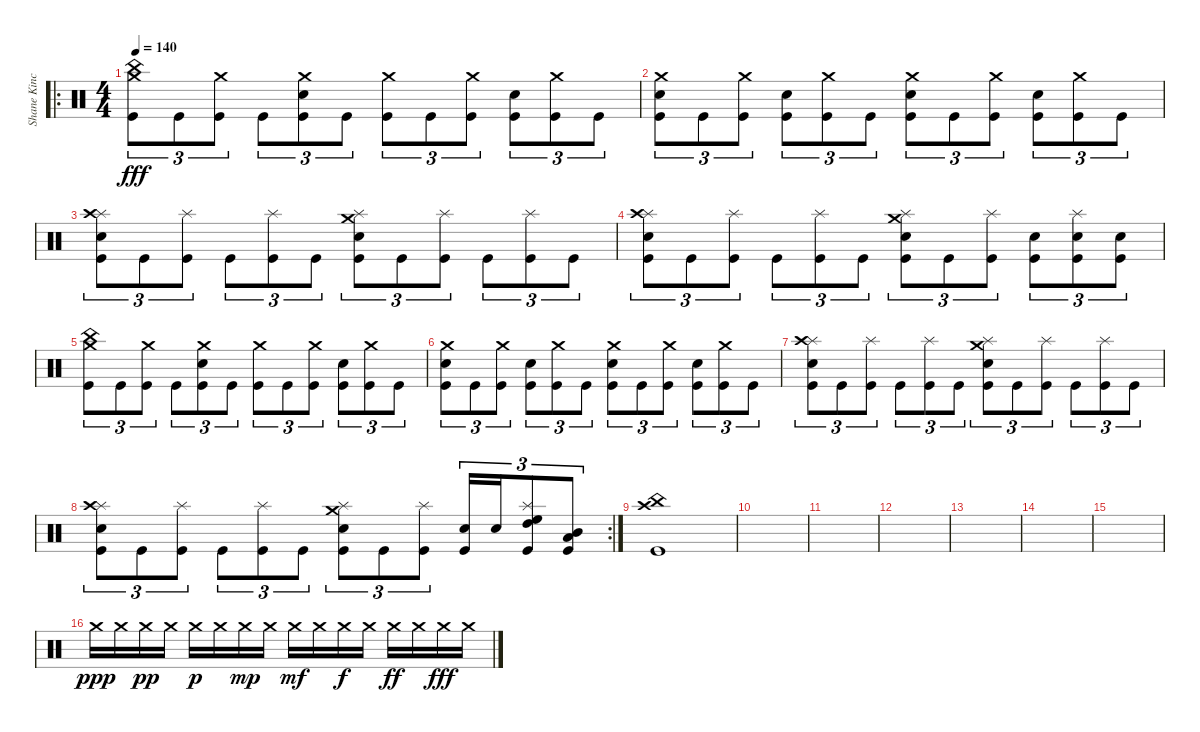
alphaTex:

\track ("Shane Kincaid" "Shane Kinc") {instrument percussion}
\staff {score}
\articulation defaults
\ro
\ts (4 4)
\tempo 140
\clef neutral
\ks c
("Crash medium (hit)" "China (hit)" "Kick (hit)").8{tu (3 2) dy fff} "Kick (hit)".8{tu (3 2)} ("Crash medium (hit)" "Kick (hit)").8{tu (3 2)} "Kick (hit)".8{tu (3 2)} ("Crash medium (hit)" "Electric Snare (hit)" "Kick (hit)").8{tu (3 2)} "Kick (hit)".8{tu (3 2)} ("Crash medium (hit)" "Kick (hit)").8{tu (3 2)} "Kick (hit)".8{tu (3 2)} ("Crash medium (hit)" "Kick (hit)").8{tu (3 2)} ("Electric Snare (hit)" "Kick (hit)").8{tu (3 2)} ("Crash medium (hit)" "Kick (hit)").8{tu (3 2)} "Kick (hit)".8{tu (3 2)} |
("Crash medium (hit)" "Electric Snare (hit)" "Kick (hit)").8{tu (3 2)} "Kick (hit)".8{tu (3 2)} ("Crash medium (hit)" "Kick (hit)").8{tu (3 2)} ("Electric Snare (hit)" "Kick (hit)").8{tu (3 2)} ("Crash medium (hit)" "Kick (hit)").8{tu (3 2)} "Kick (hit)".8{tu (3 2)} ("Crash medium (hit)" "Electric Snare (hit)" "Kick (hit)").8{tu (3 2)} "Kick (hit)".8{tu (3 2)} ("Crash medium (hit)" "Kick (hit)").8{tu (3 2)} ("Electric Snare (hit)" "Kick (hit)").8{tu (3 2)} ("Crash medium (hit)" "Kick (hit)").8{tu (3 2)} "Kick (hit)".8{tu (3 2)} |
("Splash (hit)" "Crash high (hit)" "Electric Snare (hit)" "Kick (hit)").8{tu (3 2)} "Kick (hit)".8{tu (3 2)} ("Splash (hit)" "Kick (hit)").8{tu (3 2)} "Kick (hit)".8{tu (3 2)} ("Splash (hit)" "Kick (hit)").8{tu (3 2)} "Kick (hit)".8{tu (3 2)} ("Splash (hit)" "Crash medium (hit)" "Electric Snare (hit)" "Kick (hit)").8{tu (3 2)} "Kick (hit)".8{tu (3 2)} ("Splash (hit)" "Kick (hit)").8{tu (3 2)} "Kick (hit)".8{tu (3 2)} ("Splash (hit)" "Kick (hit)").8{tu (3 2)} "Kick (hit)".8{tu (3 2)} |
("Splash (hit)" "Crash high (hit)" "Electric Snare (hit)" "Kick (hit)").8{tu (3 2)} "Kick (hit)".8{tu (3 2)} ("Splash (hit)" "Kick (hit)").8{tu (3 2)} "Kick (hit)".8{tu (3 2)} ("Splash (hit)" "Kick (hit)").8{tu (3 2)} "Kick (hit)".8{tu (3 2)} ("Splash (hit)" "Crash medium (hit)" "Electric Snare (hit)" "Kick (hit)").8{tu (3 2)} "Kick (hit)".8{tu (3 2)} ("Splash (hit)" "Kick (hit)").8{tu (3 2)} ("Electric Snare (hit)" "Kick (hit)").8{tu (3 2)} ("Splash (hit)" "Electric Snare (hit)" "Kick (hit)").8{tu (3 2)} ("Electric Snare (hit)" "Kick (hit)").8{tu (3 2)} |
("Crash medium (hit)" "China (hit)" "Kick (hit)").8{tu (3 2)} "Kick (hit)".8{tu (3 2)} ("Crash medium (hit)" "Kick (hit)").8{tu (3 2)} "Kick (hit)".8{tu (3 2)} ("Crash medium (hit)" "Electric Snare (hit)" "Kick (hit)").8{tu (3 2)} "Kick (hit)".8{tu (3 2)} ("Crash medium (hit)" "Kick (hit)").8{tu (3 2)} "Kick (hit)".8{tu (3 2)} ("Crash medium (hit)" "Kick (hit)").8{tu (3 2)} ("Electric Snare (hit)" "Kick (hit)").8{tu (3 2)} ("Crash medium (hit)" "Kick (hit)").8{tu (3 2)} "Kick (hit)".8{tu (3 2)} |
("Crash medium (hit)" "Electric Snare (hit)" "Kick (hit)").8{tu (3 2)} "Kick (hit)".8{tu (3 2)} ("Crash medium (hit)" "Kick (hit)").8{tu (3 2)} ("Electric Snare (hit)" "Kick (hit)").8{tu (3 2)} ("Crash medium (hit)" "Kick (hit)").8{tu (3 2)} "Kick (hit)".8{tu (3 2)} ("Crash medium (hit)" "Electric Snare (hit)" "Kick (hit)").8{tu (3 2)} "Kick (hit)".8{tu (3 2)} ("Crash medium (hit)" "Kick (hit)").8{tu (3 2)} ("Electric Snare (hit)" "Kick (hit)").8{tu (3 2)} ("Crash medium (hit)" "Kick (hit)").8{tu (3 2)} "Kick (hit)".8{tu (3 2)} |
("Splash (hit)" "Crash high (hit)" "Electric Snare (hit)" "Kick (hit)").8{tu (3 2)} "Kick (hit)".8{tu (3 2)} ("Splash (hit)" "Kick (hit)").8{tu (3 2)} "Kick (hit)".8{tu (3 2)} ("Splash (hit)" "Kick (hit)").8{tu (3 2)} "Kick (hit)".8{tu (3 2)} ("Splash (hit)" "Crash medium (hit)" "Electric Snare (hit)" "Kick (hit)").8{tu (3 2)} "Kick (hit)".8{tu (3 2)} ("Splash (hit)" "Kick (hit)").8{tu (3 2)} "Kick (hit)".8{tu (3 2)} ("Splash (hit)" "Kick (hit)").8{tu (3 2)} "Kick (hit)".8{tu (3 2)} |
\rc 2
("Splash (hit)" "Crash high (hit)" "Electric Snare (hit)" "Kick (hit)").8{tu (3 2)} "Kick (hit)".8{tu (3 2)} ("Splash (hit)" "Kick (hit)").8{tu (3 2)} "Kick (hit)".8{tu (3 2)} ("Splash (hit)" "Kick (hit)").8{tu (3 2)} "Kick (hit)".8{tu (3 2)} ("Splash (hit)" "Crash medium (hit)" "Electric Snare (hit)" "Kick (hit)").8{tu (3 2)} "Kick (hit)".8{tu (3 2)} ("Splash (hit)" "Kick (hit)").8{tu (3 2)} ("Electric Snare (hit)" "Kick (hit)").16{tu (3 2)} "Electric Snare (hit)".16{tu (3 2)} ("Splash (hit)" "High Tom (hit)" "High Floor Tom (hit)" "Kick (hit)").8{tu (3 2)} ("Mid Tom (hit)" "Low Tom (hit)" "Kick (hit)").8{tu (3 2)} |
("Crash high (hit)" "China (hit)" "Kick (hit)").1 |
|
|
|
|
|
|
"Crash medium (hit)".16{dy ppp} "Crash medium (hit)".16 "Crash medium (hit)".16{dy pp} "Crash medium (hit)".16 "Crash medium (hit)".16{dy p} "Crash medium (hit)".16 "Crash medium (hit)".16{dy mp} "Crash medium (hit)".16 "Crash medium (hit)".16{dy mf} "Crash medium (hit)".16 "Crash medium (hit)".16{dy f} "Crash medium (hit)".16 "Crash medium (hit)".16{dy ff} "Crash medium (hit)".16 "Crash medium (hit)".16{dy fff} "Crash medium (hit)".16
